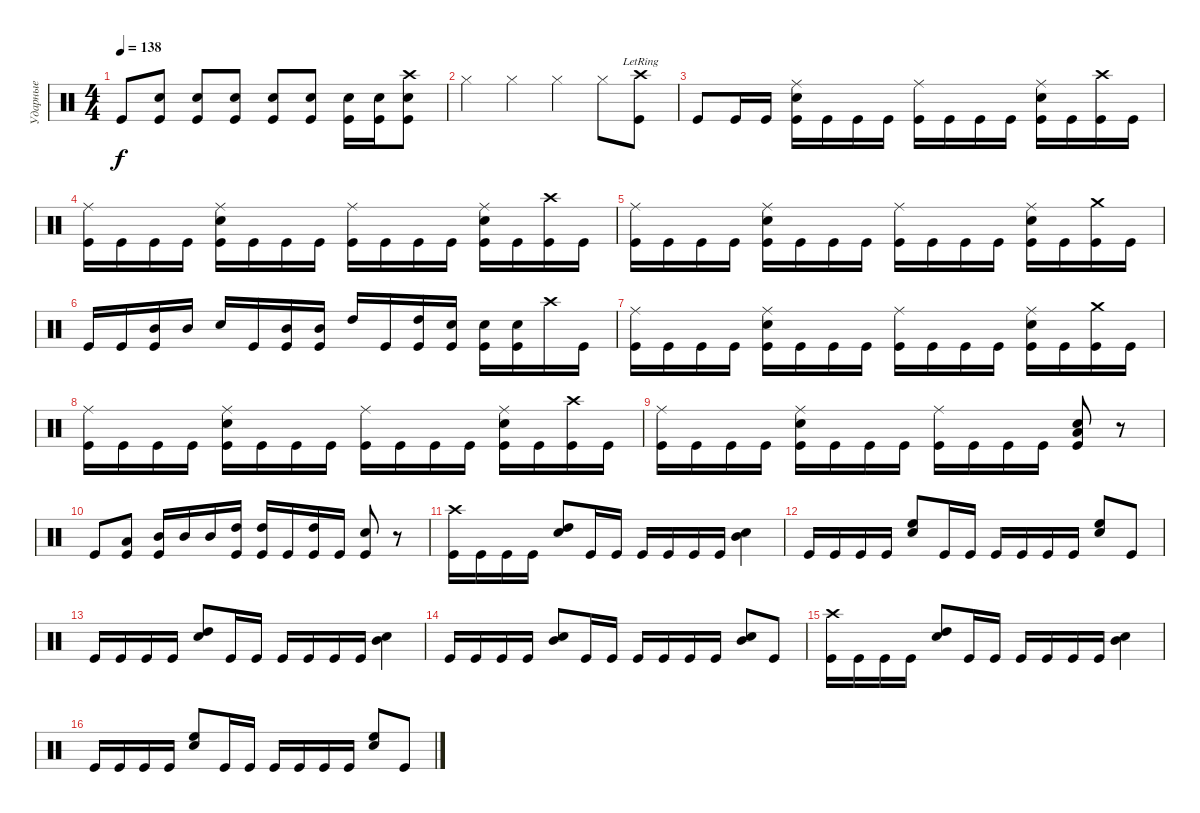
\track ("Ударные" "Ударные") {instrument percussion}
\staff {score}
\articulation defaults
\ts (4 4)
\tempo 138
\clef neutral
\ks c "Kick (hit)".8{dy f}
("Electric Snare (hit)" "Kick (hit)").8 ("Electric Snare (hit)" "Kick (hit)").8 ("Electric Snare (hit)" "Kick (hit)").8 ("Electric Snare (hit)" "Kick (hit)").8 ("Electric Snare (hit)" "Kick (hit)").8 ("Electric Snare (hit)" "Kick (hit)").16 ("Electric Snare (hit)" "Kick (hit)").16 ("Crash high (hit)" "Electric Snare (hit)" "Kick (hit)").8 |
"Hi-Hat (closed)".4 "Hi-Hat (closed)".4 "Hi-Hat (closed)".4 "Hi-Hat (closed)".8 ("Crash high (hit)"{lr} "Kick (hit)").8 |
"Kick (hit)".8 "Kick (hit)".16 "Kick (hit)".16 ("Ride (middle)" "Electric Snare (hit)" "Kick (hit)").16 "Kick (hit)".16 "Kick (hit)".16 "Kick (hit)".16 ("Ride (middle)" "Kick (hit)").16 "Kick (hit)".16 "Kick (hit)".16 "Kick (hit)".16 ("Ride (middle)" "Electric Snare (hit)" "Kick (hit)").16 "Kick (hit)".16 ("Crash high (hit)" "Kick (hit)").16 "Kick (hit)".16 |
("Ride (middle)" "Kick (hit)").16 "Kick (hit)".16 "Kick (hit)".16 "Kick (hit)".16 ("Ride (middle)" "Electric Snare (hit)" "Kick (hit)").16 "Kick (hit)".16 "Kick (hit)".16 "Kick (hit)".16 ("Ride (middle)" "Kick (hit)").16 "Kick (hit)".16 "Kick (hit)".16 "Kick (hit)".16 ("Ride (middle)" "Electric Snare (hit)" "Kick (hit)").16 "Kick (hit)".16 ("Crash high (hit)" "Kick (hit)").16 "Kick (hit)".16 |
("Ride (middle)" "Kick (hit)").16 "Kick (hit)".16 "Kick (hit)".16 "Kick (hit)".16 ("Ride (middle)" "Electric Snare (hit)" "Kick (hit)").16 "Kick (hit)".16 "Kick (hit)".16 "Kick (hit)".16 ("Ride (middle)" "Kick (hit)").16 "Kick (hit)".16 "Kick (hit)".16 "Kick (hit)".16 ("Ride (middle)" "Electric Snare (hit)" "Kick (hit)").16 "Kick (hit)".16 ("Crash medium (hit)" "Kick (hit)").16 "Kick (hit)".16 |
"Kick (hit)".16 "Kick (hit)".16 ("Mid Tom (hit)" "Kick (hit)").16 "Mid Tom (hit)".16 "Electric Snare (hit)".16 "Kick (hit)".16 ("Mid Tom (hit)" "Kick (hit)").16 ("Mid Tom (hit)" "Kick (hit)").16 "High Tom (hit)".16 "Kick (hit)".16 ("High Tom (hit)" "Kick (hit)").16 ("Electric Snare (hit)" "Kick (hit)").16 ("Electric Snare (hit)" "Kick (hit)").16 ("Electric Snare (hit)" "Kick (hit)").16 "Crash high (hit)".16 "Kick (hit)".16 |
("Ride (middle)" "Kick (hit)").16 "Kick (hit)".16 "Kick (hit)".16 "Kick (hit)".16 ("Ride (middle)" "Electric Snare (hit)" "Kick (hit)").16 "Kick (hit)".16 "Kick (hit)".16 "Kick (hit)".16 ("Ride (middle)" "Kick (hit)").16 "Kick (hit)".16 "Kick (hit)".16 "Kick (hit)".16 ("Ride (middle)" "Electric Snare (hit)" "Kick (hit)").16 "Kick (hit)".16 ("Crash medium (hit)" "Kick (hit)").16 "Kick (hit)".16 |
("Ride (middle)" "Kick (hit)").16 "Kick (hit)".16 "Kick (hit)".16 "Kick (hit)".16 ("Ride (middle)" "Electric Snare (hit)" "Kick (hit)").16 "Kick (hit)".16 "Kick (hit)".16 "Kick (hit)".16 ("Ride (middle)" "Kick (hit)").16 "Kick (hit)".16 "Kick (hit)".16 "Kick (hit)".16 ("Ride (middle)" "Electric Snare (hit)" "Kick (hit)").16 "Kick (hit)".16 ("Crash high (hit)" "Kick (hit)").16 "Kick (hit)".16 |
("Ride (middle)" "Kick (hit)").16 "Kick (hit)".16 "Kick (hit)".16 "Kick (hit)".16 ("Ride (middle)" "Electric Snare (hit)" "Kick (hit)").16 "Kick (hit)".16 "Kick (hit)".16 "Kick (hit)".16 ("Ride (middle)" "Kick (hit)").16 "Kick (hit)".16 "Kick (hit)".16 "Kick (hit)".16 ("Low Tom (hit)" "Electric Snare (hit)" "Kick (hit)").8 r.8 |
"Kick (hit)".8 ("Low Tom (hit)" "Kick (hit)").8 ("Mid Tom (hit)" "Kick (hit)").16 "Mid Tom (hit)".16 "Mid Tom (hit)".16 ("High Tom (hit)" "Kick (hit)").16 ("High Tom (hit)" "Kick (hit)").16 "Kick (hit)".16 ("High Tom (hit)" "Kick (hit)").16 "Kick (hit)".16 ("Electric Snare (hit)" "Kick (hit)").8 r.8 |
("Crash high (hit)" "Kick (hit)").16 "Kick (hit)".16 "Kick (hit)".16 "Kick (hit)".16 ("High Tom (hit)" "Electric Snare (hit)").8 "Kick (hit)".16 "Kick (hit)".16 "Kick (hit)".16 "Kick (hit)".16 "Kick (hit)".16 "Kick (hit)".16 ("Mid Tom (hit)" "Electric Snare (hit)").4 |
"Kick (hit)".16 "Kick (hit)".16 "Kick (hit)".16 "Kick (hit)".16 ("High Floor Tom (hit)" "Electric Snare (hit)").8 "Kick (hit)".16 "Kick (hit)".16 "Kick (hit)".16 "Kick (hit)".16 "Kick (hit)".16 "Kick (hit)".16 ("High Floor Tom (hit)" "Electric Snare (hit)").8 "Kick (hit)".8 |
"Kick (hit)".16 "Kick (hit)".16 "Kick (hit)".16 "Kick (hit)".16 ("High Tom (hit)" "Electric Snare (hit)").8 "Kick (hit)".16 "Kick (hit)".16 "Kick (hit)".16 "Kick (hit)".16 "Kick (hit)".16 "Kick (hit)".16 ("Mid Tom (hit)" "Electric Snare (hit)").4 |
"Kick (hit)".16 "Kick (hit)".16 "Kick (hit)".16 "Kick (hit)".16 ("Electric Snare (hit)" "Mid Tom (hit)").8 "Kick (hit)".16 "Kick (hit)".16 "Kick (hit)".16 "Kick (hit)".16 "Kick (hit)".16 "Kick (hit)".16 ("Mid Tom (hit)" "Electric Snare (hit)").8 "Kick (hit)".8 |
("Crash high (hit)" "Kick (hit)").16 "Kick (hit)".16 "Kick (hit)".16 "Kick (hit)".16 ("High Tom (hit)" "Electric Snare (hit)").8 "Kick (hit)".16 "Kick (hit)".16 "Kick (hit)".16 "Kick (hit)".16 "Kick (hit)".16 "Kick (hit)".16 ("Mid Tom (hit)" "Electric Snare (hit)").4 |
"Kick (hit)".16 "Kick (hit)".16 "Kick (hit)".16 "Kick (hit)".16 ("High Floor Tom (hit)" "Electric Snare (hit)").8 "Kick (hit)".16 "Kick (hit)".16 "Kick (hit)".16 "Kick (hit)".16 "Kick (hit)".16 "Kick (hit)".16 ("High Floor Tom (hit)" "Electric Snare (hit)").8 "Kick (hit)".8
